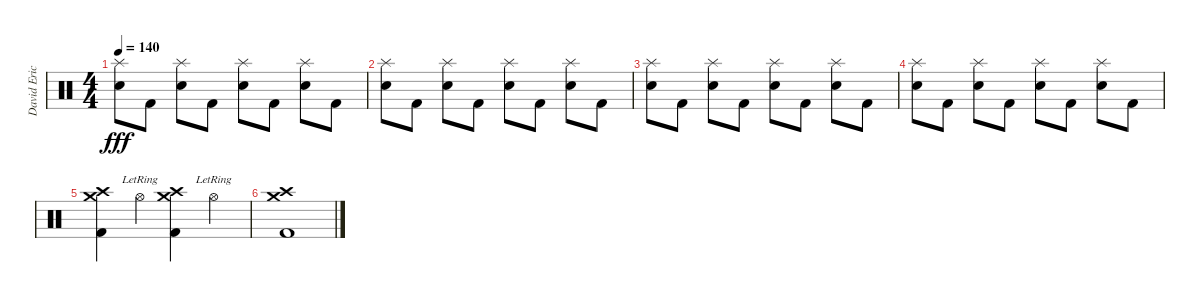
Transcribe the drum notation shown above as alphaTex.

\track ("David Eric Grohl" "David Eric") {instrument percussion}
\staff {score}
\articulation defaults
\ts (4 4)
\tempo 140
\clef neutral
\ks c
("Electric Snare (hit)" "Splash (hit)").8{dy fff} "Kick (hit) 2".8 ("Electric Snare (hit)" "Splash (hit)").8 "Kick (hit) 2".8 ("Electric Snare (hit)" "Splash (hit)").8 "Kick (hit) 2".8 ("Electric Snare (hit)" "Splash (hit)").8 "Kick (hit) 2".8 |
("Electric Snare (hit)" "Splash (hit)").8 "Kick (hit) 2".8 ("Electric Snare (hit)" "Splash (hit)").8 "Kick (hit) 2".8 ("Electric Snare (hit)" "Splash (hit)").8 "Kick (hit) 2".8 ("Electric Snare (hit)" "Splash (hit)").8 "Kick (hit) 2".8 |
("Electric Snare (hit)" "Splash (hit)").8 "Kick (hit) 2".8 ("Electric Snare (hit)" "Splash (hit)").8 "Kick (hit) 2".8 ("Electric Snare (hit)" "Splash (hit)").8 "Kick (hit) 2".8 ("Electric Snare (hit)" "Splash (hit)").8 "Kick (hit) 2".8 |
("Electric Snare (hit)" "Splash (hit)").8 "Kick (hit) 2".8 ("Electric Snare (hit)" "Splash (hit)").8 "Kick (hit) 2".8 ("Electric Snare (hit)" "Splash (hit)").8 "Kick (hit) 2".8 ("Electric Snare (hit)" "Splash (hit)").8 "Kick (hit) 2".8 |
("Crash high (hit)" "Crash medium (hit)" "Kick (hit) 2").4 "Hi-Hat (open)"{lr}.4 ("Crash high (hit)" "Crash medium (hit)" "Kick (hit) 2").4 "Hi-Hat (open)"{lr}.4 |
("Crash high (hit)" "Crash medium (hit)" "Kick (hit) 2").1
